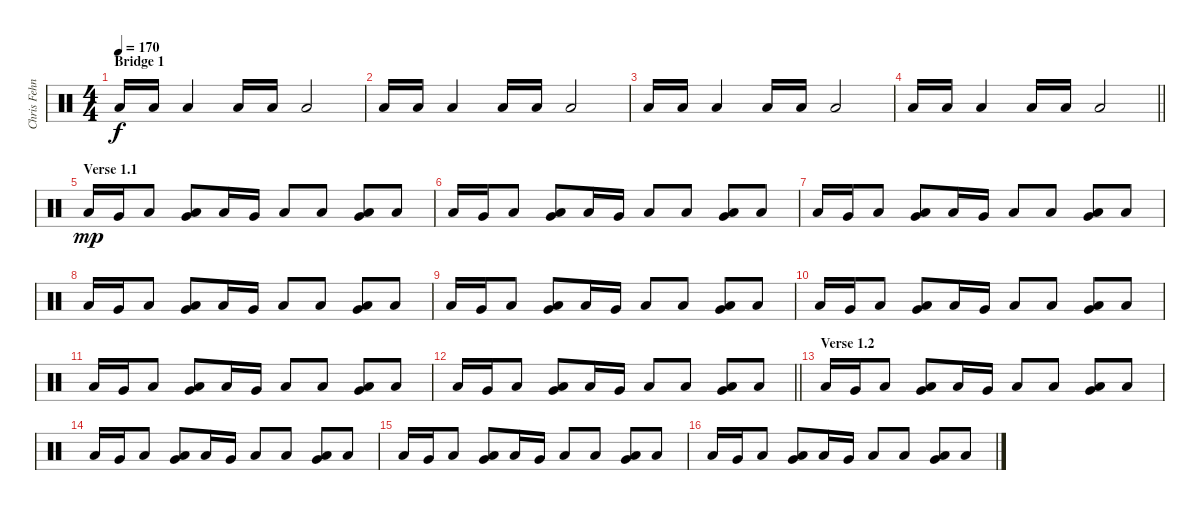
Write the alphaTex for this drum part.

\track ("Chris Fehn" "Chris Fehn") {instrument percussion}
\staff {score}
\articulation defaults
\ts (4 4)
\section ("" "Bridge 1")
\tempo 170
\clef neutral
\ks c "Low Floor Tom (hit)".16{dy f} "Low Floor Tom (hit)".16 "Low Floor Tom (hit)".4 "Low Floor Tom (hit)".16 "Low Floor Tom (hit)".16 "Low Floor Tom (hit)".2
|
"Low Floor Tom (hit)".16 "Low Floor Tom (hit)".16 "Low Floor Tom (hit)".4 "Low Floor Tom (hit)".16 "Low Floor Tom (hit)".16 "Low Floor Tom (hit)".2 |
"Low Floor Tom (hit)".16 "Low Floor Tom (hit)".16 "Low Floor Tom (hit)".4 "Low Floor Tom (hit)".16 "Low Floor Tom (hit)".16 "Low Floor Tom (hit)".2 |
\barLineRight lightlight "Low Floor Tom (hit)".16 "Low Floor Tom (hit)".16 "Low Floor Tom (hit)".4 "Low Floor Tom (hit)".16 "Low Floor Tom (hit)".16 "Low Floor Tom (hit)".2
|
\section ("" "Verse 1.1")
"Low Floor Tom (hit)".16{dy mp} "Very Low Tom (hit)".16 "Low Floor Tom (hit)".8 ("Very Low Tom (hit)" "Low Floor Tom (hit)").8 "Low Floor Tom (hit)".16 "Very Low Tom (hit)".16 "Low Floor Tom (hit)".8 "Low Floor Tom (hit)".8 ("Very Low Tom (hit)" "Low Floor Tom (hit)").8 "Low Floor Tom (hit)".8 |
"Low Floor Tom (hit)".16 "Very Low Tom (hit)".16 "Low Floor Tom (hit)".8 ("Very Low Tom (hit)" "Low Floor Tom (hit)").8 "Low Floor Tom (hit)".16 "Very Low Tom (hit)".16 "Low Floor Tom (hit)".8 "Low Floor Tom (hit)".8 ("Very Low Tom (hit)" "Low Floor Tom (hit)").8 "Low Floor Tom (hit)".8 |
"Low Floor Tom (hit)".16 "Very Low Tom (hit)".16 "Low Floor Tom (hit)".8 ("Very Low Tom (hit)" "Low Floor Tom (hit)").8 "Low Floor Tom (hit)".16 "Very Low Tom (hit)".16 "Low Floor Tom (hit)".8 "Low Floor Tom (hit)".8 ("Very Low Tom (hit)" "Low Floor Tom (hit)").8 "Low Floor Tom (hit)".8 |
"Low Floor Tom (hit)".16 "Very Low Tom (hit)".16 "Low Floor Tom (hit)".8 ("Very Low Tom (hit)" "Low Floor Tom (hit)").8 "Low Floor Tom (hit)".16 "Very Low Tom (hit)".16 "Low Floor Tom (hit)".8 "Low Floor Tom (hit)".8 ("Very Low Tom (hit)" "Low Floor Tom (hit)").8 "Low Floor Tom (hit)".8 |
"Low Floor Tom (hit)".16 "Very Low Tom (hit)".16 "Low Floor Tom (hit)".8 ("Very Low Tom (hit)" "Low Floor Tom (hit)").8 "Low Floor Tom (hit)".16 "Very Low Tom (hit)".16 "Low Floor Tom (hit)".8 "Low Floor Tom (hit)".8 ("Very Low Tom (hit)" "Low Floor Tom (hit)").8 "Low Floor Tom (hit)".8 |
"Low Floor Tom (hit)".16 "Very Low Tom (hit)".16 "Low Floor Tom (hit)".8 ("Very Low Tom (hit)" "Low Floor Tom (hit)").8 "Low Floor Tom (hit)".16 "Very Low Tom (hit)".16 "Low Floor Tom (hit)".8 "Low Floor Tom (hit)".8 ("Very Low Tom (hit)" "Low Floor Tom (hit)").8 "Low Floor Tom (hit)".8 |
"Low Floor Tom (hit)".16 "Very Low Tom (hit)".16 "Low Floor Tom (hit)".8 ("Very Low Tom (hit)" "Low Floor Tom (hit)").8 "Low Floor Tom (hit)".16 "Very Low Tom (hit)".16 "Low Floor Tom (hit)".8 "Low Floor Tom (hit)".8 ("Very Low Tom (hit)" "Low Floor Tom (hit)").8 "Low Floor Tom (hit)".8 |
\barLineRight lightlight "Low Floor Tom (hit)".16 "Very Low Tom (hit)".16 "Low Floor Tom (hit)".8
("Very Low Tom (hit)" "Low Floor Tom (hit)").8 "Low Floor Tom (hit)".16 "Very Low Tom (hit)".16 "Low Floor Tom (hit)".8 "Low Floor Tom (hit)".8 ("Very Low Tom (hit)" "Low Floor Tom (hit)").8 "Low Floor Tom (hit)".8 |
\section ("" "Verse 1.2")
"Low Floor Tom (hit)".16 "Very Low Tom (hit)".16 "Low Floor Tom (hit)".8 ("Very Low Tom (hit)" "Low Floor Tom (hit)").8 "Low Floor Tom (hit)".16 "Very Low Tom (hit)".16 "Low Floor Tom (hit)".8 "Low Floor Tom (hit)".8 ("Very Low Tom (hit)" "Low Floor Tom (hit)").8 "Low Floor Tom (hit)".8 |
"Low Floor Tom (hit)".16 "Very Low Tom (hit)".16 "Low Floor Tom (hit)".8 ("Very Low Tom (hit)" "Low Floor Tom (hit)").8 "Low Floor Tom (hit)".16 "Very Low Tom (hit)".16 "Low Floor Tom (hit)".8 "Low Floor Tom (hit)".8 ("Very Low Tom (hit)" "Low Floor Tom (hit)").8 "Low Floor Tom (hit)".8 |
"Low Floor Tom (hit)".16 "Very Low Tom (hit)".16 "Low Floor Tom (hit)".8 ("Very Low Tom (hit)" "Low Floor Tom (hit)").8 "Low Floor Tom (hit)".16 "Very Low Tom (hit)".16 "Low Floor Tom (hit)".8 "Low Floor Tom (hit)".8 ("Very Low Tom (hit)" "Low Floor Tom (hit)").8 "Low Floor Tom (hit)".8 |
"Low Floor Tom (hit)".16 "Very Low Tom (hit)".16 "Low Floor Tom (hit)".8 ("Very Low Tom (hit)" "Low Floor Tom (hit)").8 "Low Floor Tom (hit)".16 "Very Low Tom (hit)".16 "Low Floor Tom (hit)".8 "Low Floor Tom (hit)".8 ("Very Low Tom (hit)" "Low Floor Tom (hit)").8 "Low Floor Tom (hit)".8
